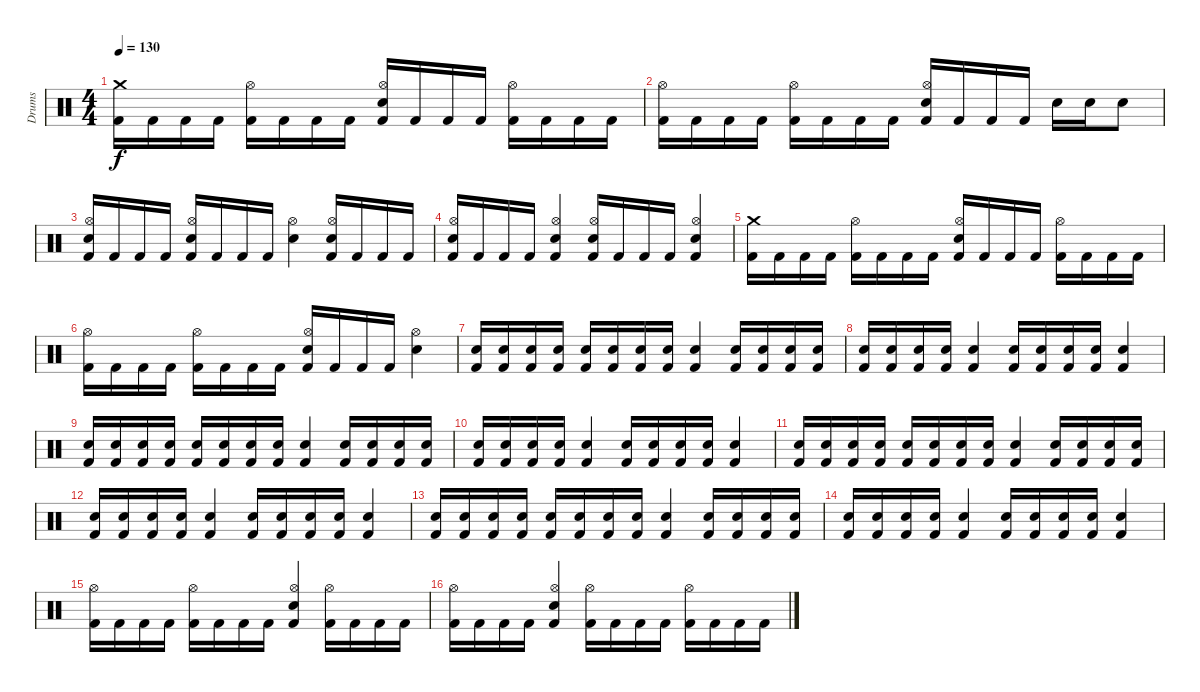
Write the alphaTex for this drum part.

\track ("Drums" "Drums") {instrument percussion}
\staff {score}
\articulation defaults
\ts (4 4)
\tempo 130
\clef neutral
\ks c
("Crash medium (hit)" "Kick (hit) 2").16{dy f} "Kick (hit) 2".16 "Kick (hit) 2".16 "Kick (hit) 2".16 ("Hi-Hat (open)" "Kick (hit) 2").16 "Kick (hit) 2".16 "Kick (hit) 2".16 "Kick (hit) 2".16 ("Hi-Hat (open)" "Snare (hit) 2" "Kick (hit) 2").16 "Kick (hit) 2".16 "Kick (hit) 2".16 "Kick (hit) 2".16 ("Hi-Hat (open)" "Kick (hit) 2").16 "Kick (hit) 2".16 "Kick (hit) 2".16 "Kick (hit) 2".16 |
("Hi-Hat (open)" "Kick (hit) 2").16 "Kick (hit) 2".16 "Kick (hit) 2".16 "Kick (hit) 2".16 ("Hi-Hat (open)" "Kick (hit) 2").16 "Kick (hit) 2".16 "Kick (hit) 2".16 "Kick (hit) 2".16 ("Hi-Hat (open)" "Snare (hit) 2" "Kick (hit) 2").16 "Kick (hit) 2".16 "Kick (hit) 2".16 "Kick (hit) 2".16 "Snare (hit) 2".16 "Snare (hit) 2".16 "Snare (hit) 2".8 |
("Hi-Hat (open)" "Snare (hit) 2" "Kick (hit) 2").16 "Kick (hit) 2".16 "Kick (hit) 2".16 "Kick (hit) 2".16 ("Hi-Hat (open)" "Snare (hit) 2" "Kick (hit) 2").16 "Kick (hit) 2".16 "Kick (hit) 2".16 "Kick (hit) 2".16 ("Hi-Hat (open)" "Snare (hit) 2").4 ("Hi-Hat (open)" "Snare (hit) 2" "Kick (hit) 2").16 "Kick (hit) 2".16 "Kick (hit) 2".16 "Kick (hit) 2".16 |
("Hi-Hat (open)" "Snare (hit) 2" "Kick (hit) 2").16 "Kick (hit) 2".16 "Kick (hit) 2".16 "Kick (hit) 2".16 ("Hi-Hat (open)" "Snare (hit) 2" "Kick (hit) 2").4 ("Hi-Hat (open)" "Snare (hit) 2" "Kick (hit) 2").16 "Kick (hit) 2".16 "Kick (hit) 2".16 "Kick (hit) 2".16 ("Hi-Hat (open)" "Snare (hit) 2" "Kick (hit) 2").4 |
("Crash medium (hit)" "Kick (hit) 2").16 "Kick (hit) 2".16 "Kick (hit) 2".16 "Kick (hit) 2".16 ("Hi-Hat (open)" "Kick (hit) 2").16 "Kick (hit) 2".16 "Kick (hit) 2".16 "Kick (hit) 2".16 ("Hi-Hat (open)" "Snare (hit) 2" "Kick (hit) 2").16 "Kick (hit) 2".16 "Kick (hit) 2".16 "Kick (hit) 2".16 ("Hi-Hat (open)" "Kick (hit) 2").16 "Kick (hit) 2".16 "Kick (hit) 2".16 "Kick (hit) 2".16 |
("Hi-Hat (open)" "Kick (hit) 2").16 "Kick (hit) 2".16 "Kick (hit) 2".16 "Kick (hit) 2".16 ("Hi-Hat (open)" "Kick (hit) 2").16 "Kick (hit) 2".16 "Kick (hit) 2".16 "Kick (hit) 2".16 ("Hi-Hat (open)" "Snare (hit) 2" "Kick (hit) 2").16 "Kick (hit) 2".16 "Kick (hit) 2".16 "Kick (hit) 2".16 ("Hi-Hat (open)" "Snare (hit) 2").4 |
("Kick (hit) 2" "Snare (hit) 2").16 ("Kick (hit) 2" "Snare (hit) 2").16 ("Kick (hit) 2" "Snare (hit) 2").16 ("Kick (hit) 2" "Snare (hit) 2").16 ("Kick (hit) 2" "Snare (hit) 2").16 ("Kick (hit) 2" "Snare (hit) 2").16 ("Kick (hit) 2" "Snare (hit) 2").16 ("Kick (hit) 2" "Snare (hit) 2").16 ("Kick (hit) 2" "Snare (hit) 2").4 ("Kick (hit) 2" "Snare (hit) 2").16 ("Kick (hit) 2" "Snare (hit) 2").16 ("Kick (hit) 2" "Snare (hit) 2").16 ("Kick (hit) 2" "Snare (hit) 2").16 |
("Kick (hit) 2" "Snare (hit) 2").16 ("Kick (hit) 2" "Snare (hit) 2").16 ("Kick (hit) 2" "Snare (hit) 2").16 ("Kick (hit) 2" "Snare (hit) 2").16 ("Kick (hit) 2" "Snare (hit) 2").4 ("Kick (hit) 2" "Snare (hit) 2").16 ("Kick (hit) 2" "Snare (hit) 2").16 ("Kick (hit) 2" "Snare (hit) 2").16 ("Kick (hit) 2" "Snare (hit) 2").16 ("Kick (hit) 2" "Snare (hit) 2").4 |
("Kick (hit) 2" "Snare (hit) 2").16 ("Kick (hit) 2" "Snare (hit) 2").16 ("Kick (hit) 2" "Snare (hit) 2").16 ("Kick (hit) 2" "Snare (hit) 2").16 ("Kick (hit) 2" "Snare (hit) 2").16 ("Kick (hit) 2" "Snare (hit) 2").16 ("Kick (hit) 2" "Snare (hit) 2").16 ("Kick (hit) 2" "Snare (hit) 2").16 ("Kick (hit) 2" "Snare (hit) 2").4 ("Kick (hit) 2" "Snare (hit) 2").16 ("Kick (hit) 2" "Snare (hit) 2").16 ("Kick (hit) 2" "Snare (hit) 2").16 ("Kick (hit) 2" "Snare (hit) 2").16 |
("Kick (hit) 2" "Snare (hit) 2").16 ("Kick (hit) 2" "Snare (hit) 2").16 ("Kick (hit) 2" "Snare (hit) 2").16 ("Kick (hit) 2" "Snare (hit) 2").16 ("Kick (hit) 2" "Snare (hit) 2").4 ("Kick (hit) 2" "Snare (hit) 2").16 ("Kick (hit) 2" "Snare (hit) 2").16 ("Kick (hit) 2" "Snare (hit) 2").16 ("Kick (hit) 2" "Snare (hit) 2").16 ("Kick (hit) 2" "Snare (hit) 2").4 |
("Kick (hit) 2" "Snare (hit) 2").16 ("Kick (hit) 2" "Snare (hit) 2").16 ("Kick (hit) 2" "Snare (hit) 2").16 ("Kick (hit) 2" "Snare (hit) 2").16 ("Kick (hit) 2" "Snare (hit) 2").16 ("Kick (hit) 2" "Snare (hit) 2").16 ("Kick (hit) 2" "Snare (hit) 2").16 ("Kick (hit) 2" "Snare (hit) 2").16 ("Kick (hit) 2" "Snare (hit) 2").4 ("Kick (hit) 2" "Snare (hit) 2").16 ("Kick (hit) 2" "Snare (hit) 2").16 ("Kick (hit) 2" "Snare (hit) 2").16 ("Kick (hit) 2" "Snare (hit) 2").16 |
("Kick (hit) 2" "Snare (hit) 2").16 ("Kick (hit) 2" "Snare (hit) 2").16 ("Kick (hit) 2" "Snare (hit) 2").16 ("Kick (hit) 2" "Snare (hit) 2").16 ("Kick (hit) 2" "Snare (hit) 2").4 ("Kick (hit) 2" "Snare (hit) 2").16 ("Kick (hit) 2" "Snare (hit) 2").16 ("Kick (hit) 2" "Snare (hit) 2").16 ("Kick (hit) 2" "Snare (hit) 2").16 ("Kick (hit) 2" "Snare (hit) 2").4 |
("Kick (hit) 2" "Snare (hit) 2").16 ("Kick (hit) 2" "Snare (hit) 2").16 ("Kick (hit) 2" "Snare (hit) 2").16 ("Kick (hit) 2" "Snare (hit) 2").16 ("Kick (hit) 2" "Snare (hit) 2").16 ("Kick (hit) 2" "Snare (hit) 2").16 ("Kick (hit) 2" "Snare (hit) 2").16 ("Kick (hit) 2" "Snare (hit) 2").16 ("Kick (hit) 2" "Snare (hit) 2").4 ("Kick (hit) 2" "Snare (hit) 2").16 ("Kick (hit) 2" "Snare (hit) 2").16 ("Kick (hit) 2" "Snare (hit) 2").16 ("Kick (hit) 2" "Snare (hit) 2").16 |
("Kick (hit) 2" "Snare (hit) 2").16 ("Kick (hit) 2" "Snare (hit) 2").16 ("Kick (hit) 2" "Snare (hit) 2").16 ("Kick (hit) 2" "Snare (hit) 2").16 ("Kick (hit) 2" "Snare (hit) 2").4 ("Kick (hit) 2" "Snare (hit) 2").16 ("Kick (hit) 2" "Snare (hit) 2").16 ("Kick (hit) 2" "Snare (hit) 2").16 ("Kick (hit) 2" "Snare (hit) 2").16 ("Kick (hit) 2" "Snare (hit) 2").4 |
("Hi-Hat (open)" "Kick (hit) 2").16 "Kick (hit) 2".16 "Kick (hit) 2".16 "Kick (hit) 2".16 ("Hi-Hat (open)" "Kick (hit) 2").16 "Kick (hit) 2".16 "Kick (hit) 2".16 "Kick (hit) 2".16 ("Hi-Hat (open)" "Kick (hit) 2" "Snare (hit) 2").4 ("Hi-Hat (open)" "Kick (hit) 2").16 "Kick (hit) 2".16 "Kick (hit) 2".16 "Kick (hit) 2".16 |
("Hi-Hat (open)" "Kick (hit) 2").16 "Kick (hit) 2".16 "Kick (hit) 2".16 "Kick (hit) 2".16 ("Hi-Hat (open)" "Kick (hit) 2" "Snare (hit) 2").4 ("Hi-Hat (open)" "Kick (hit) 2").16 "Kick (hit) 2".16 "Kick (hit) 2".16 "Kick (hit) 2".16 ("Hi-Hat (open)" "Kick (hit) 2").16 "Kick (hit) 2".16 "Kick (hit) 2".16 "Kick (hit) 2".16
